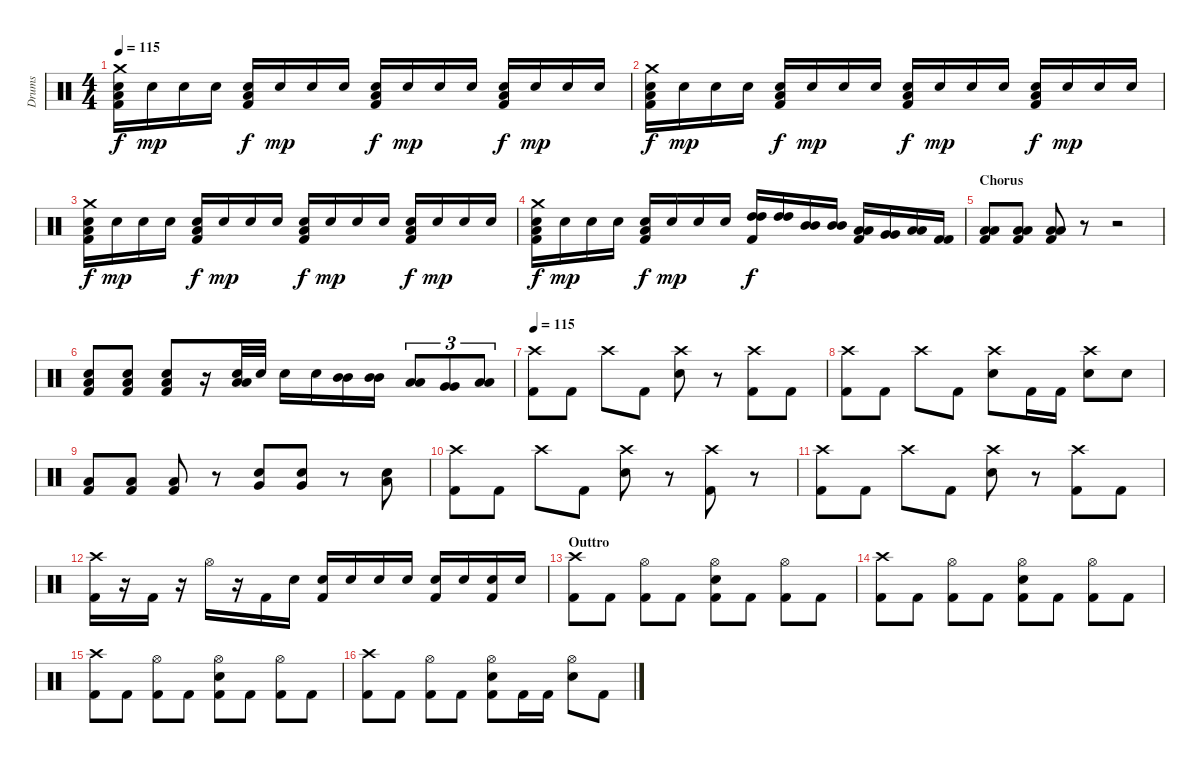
\track ("Drums" "Drums") {instrument percussion}
\staff {score}
\articulation defaults
\ts (4 4)
\tempo 115
\clef neutral
\ks c
("Crash medium (hit)" "Low Floor Tom (hit)" "Snare (hit) 2" "Kick (hit) 2").16{dy f} "Snare (hit) 2".16{dy mp} "Snare (hit) 2".16 "Snare (hit) 2".16 ("Low Floor Tom (hit)" "Snare (hit) 2" "Kick (hit) 2").16{dy f} "Snare (hit) 2".16{dy mp} "Snare (hit) 2".16 "Snare (hit) 2".16 ("Low Floor Tom (hit)" "Snare (hit) 2" "Kick (hit) 2").16{dy f} "Snare (hit) 2".16{dy mp} "Snare (hit) 2".16 "Snare (hit) 2".16 ("Low Floor Tom (hit)" "Snare (hit) 2" "Kick (hit) 2").16{dy f} "Snare (hit) 2".16{dy mp} "Snare (hit) 2".16 "Snare (hit) 2".16 |
("Crash medium (hit)" "Low Floor Tom (hit)" "Snare (hit) 2" "Kick (hit) 2").16{dy f} "Snare (hit) 2".16{dy mp} "Snare (hit) 2".16 "Snare (hit) 2".16 ("Low Floor Tom (hit)" "Snare (hit) 2" "Kick (hit) 2").16{dy f} "Snare (hit) 2".16{dy mp} "Snare (hit) 2".16 "Snare (hit) 2".16 ("Low Floor Tom (hit)" "Snare (hit) 2" "Kick (hit) 2").16{dy f} "Snare (hit) 2".16{dy mp} "Snare (hit) 2".16 "Snare (hit) 2".16 ("Low Floor Tom (hit)" "Snare (hit) 2" "Kick (hit) 2").16{dy f} "Snare (hit) 2".16{dy mp} "Snare (hit) 2".16 "Snare (hit) 2".16 |
("Crash medium (hit)" "Low Floor Tom (hit)" "Snare (hit) 2" "Kick (hit) 2").16{dy f} "Snare (hit) 2".16{dy mp} "Snare (hit) 2".16 "Snare (hit) 2".16 ("Low Floor Tom (hit)" "Snare (hit) 2" "Kick (hit) 2").16{dy f} "Snare (hit) 2".16{dy mp} "Snare (hit) 2".16 "Snare (hit) 2".16 ("Low Floor Tom (hit)" "Snare (hit) 2" "Kick (hit) 2").16{dy f} "Snare (hit) 2".16{dy mp} "Snare (hit) 2".16 "Snare (hit) 2".16 ("Low Floor Tom (hit)" "Snare (hit) 2" "Kick (hit) 2").16{dy f} "Snare (hit) 2".16{dy mp} "Snare (hit) 2".16 "Snare (hit) 2".16 |
("Crash medium (hit)" "Low Floor Tom (hit)" "Snare (hit) 2" "Kick (hit) 2").16{dy f} "Snare (hit) 2".16{dy mp} "Snare (hit) 2".16 "Snare (hit) 2".16 ("Low Floor Tom (hit)" "Snare (hit) 2" "Kick (hit) 2").16{dy f} "Snare (hit) 2".16{dy mp} "Snare (hit) 2".16 "Snare (hit) 2".16 ("High Tom (hit)" "High Tom (hit)" "Kick (hit) 2").16{dy f} ("High Tom (hit)" "High Tom (hit)").16 ("Mid Tom (hit)" "Mid Tom (hit)").16 ("Mid Tom (hit)" "Mid Tom (hit)").16 ("Low Tom (hit)" "Low Tom (hit)" "Kick (hit) 2").16 ("Very Low Tom (hit)" "Very Low Tom (hit)").16 ("Low Floor Tom (hit)" "Low Floor Tom (hit)").16 ("Kick (hit) 2" "Kick (hit) 2").16 |
\section ("" "Chorus")
("Low Floor Tom (hit)" "Low Floor Tom (hit)" "Kick (hit) 2").8 ("Low Floor Tom (hit)" "Low Floor Tom (hit)" "Kick (hit) 2").8 ("Low Floor Tom (hit)" "Low Floor Tom (hit)" "Kick (hit) 2").8 r.8 r.2 |
("Low Floor Tom (hit)" "Snare (hit) 2" "Kick (hit) 2").8 ("Low Floor Tom (hit)" "Snare (hit) 2" "Kick (hit) 2").8 ("Low Floor Tom (hit)" "Snare (hit) 2" "Kick (hit) 2").8 r.16 ("Snare (hit) 2" "Low Tom (hit)" "Low Tom (hit)").32 "Snare (hit) 2".32 "Snare (hit) 2".16{balance 10} "Snare (hit) 2".16{balance 12} ("Mid Tom (hit)" "Mid Tom (hit)").16{balance 12} ("Mid Tom (hit)" "Mid Tom (hit)").16{balance 13} ("Low Tom (hit)" "Low Tom (hit)").8{tu (3 2) balance 14} ("Very Low Tom (hit)" "Very Low Tom (hit)").8{tu (3 2) balance 15} ("Low Floor Tom (hit)" "Low Floor Tom (hit)").8{tu (3 2) balance 16} |
\tempo 115
("Crash high (hit)" "Kick (hit) 2").8{volume 16 balance 8} "Kick (hit) 2".8 "Crash high (hit)".8 "Kick (hit) 2".8 ("Crash high (hit)" "Snare (hit) 2").8 r.8 ("Crash high (hit)" "Kick (hit) 2").8 "Kick (hit) 2".8 |
("Crash high (hit)" "Kick (hit) 2").8 "Kick (hit) 2".8 "Crash high (hit)".8 "Kick (hit) 2".8 ("Crash high (hit)" "Snare (hit) 2").8 "Kick (hit) 2".16 "Kick (hit) 2".16 ("Crash high (hit)" "Snare (hit) 2").8 "Snare (hit) 2".8 |
("Low Floor Tom (hit)" "Kick (hit) 2").8 ("Low Floor Tom (hit)" "Kick (hit) 2").8 ("Low Floor Tom (hit)" "Kick (hit) 2").8 r.8 ("Very Low Tom (hit)" "Snare (hit) 2").8 ("Very Low Tom (hit)" "Snare (hit) 2").8 r.8 ("Low Floor Tom (hit)" "Snare (hit) 2").8 |
("Crash high (hit)" "Kick (hit) 2").8 "Kick (hit) 2".8 "Crash high (hit)".8 "Kick (hit) 2".8 ("Crash high (hit)" "Snare (hit) 2").8 r.8 ("Crash high (hit)" "Kick (hit) 2").8 r.8 |
("Crash high (hit)" "Kick (hit) 2").8 "Kick (hit) 2".8 "Crash high (hit)".8 "Kick (hit) 2".8 ("Crash high (hit)" "Snare (hit) 2").8 r.8 ("Crash high (hit)" "Kick (hit) 2").8 "Kick (hit) 2".8 |
("Crash high (hit)" "Kick (hit) 2").16 r.16 "Kick (hit) 2".16 r.16 "Hi-Hat (open)".16 r.16 "Kick (hit) 2".16 "Snare (hit) 2".16 ("Electric Snare (hit)" "Kick (hit) 2").16 "Electric Snare (hit)".16 "Electric Snare (hit)".16 "Electric Snare (hit)".16 ("Electric Snare (hit)" "Kick (hit) 2").16 "Electric Snare (hit)".16 ("Snare (hit) 2" "Kick (hit) 2").16 "Snare (hit) 2".16 |
\section ("" "Outtro")
("Crash high (hit)" "Kick (hit) 2").8 "Kick (hit) 2".8 ("Hi-Hat (open)" "Kick (hit) 2").8 "Kick (hit) 2".8 ("Hi-Hat (open)" "Snare (hit) 2" "Kick (hit) 2").8 "Kick (hit) 2".8 ("Hi-Hat (open)" "Kick (hit) 2").8 "Kick (hit) 2".8 |
("Crash high (hit)" "Kick (hit) 2").8 "Kick (hit) 2".8 ("Hi-Hat (open)" "Kick (hit) 2").8 "Kick (hit) 2".8 ("Hi-Hat (open)" "Snare (hit) 2" "Kick (hit) 2").8 "Kick (hit) 2".8 ("Hi-Hat (open)" "Kick (hit) 2").8 "Kick (hit) 2".8 |
("Crash high (hit)" "Kick (hit) 2").8 "Kick (hit) 2".8 ("Hi-Hat (open)" "Kick (hit) 2").8 "Kick (hit) 2".8 ("Hi-Hat (open)" "Snare (hit) 2" "Kick (hit) 2").8 "Kick (hit) 2".8 ("Hi-Hat (open)" "Kick (hit) 2").8 "Kick (hit) 2".8 |
("Crash high (hit)" "Kick (hit) 2").8 "Kick (hit) 2".8 ("Hi-Hat (open)" "Kick (hit) 2").8 "Kick (hit) 2".8 ("Hi-Hat (open)" "Snare (hit) 2" "Kick (hit) 2").8 "Kick (hit) 2".16 "Kick (hit) 2".16 ("Hi-Hat (open)" "Snare (hit) 2").8 "Kick (hit) 2".8
